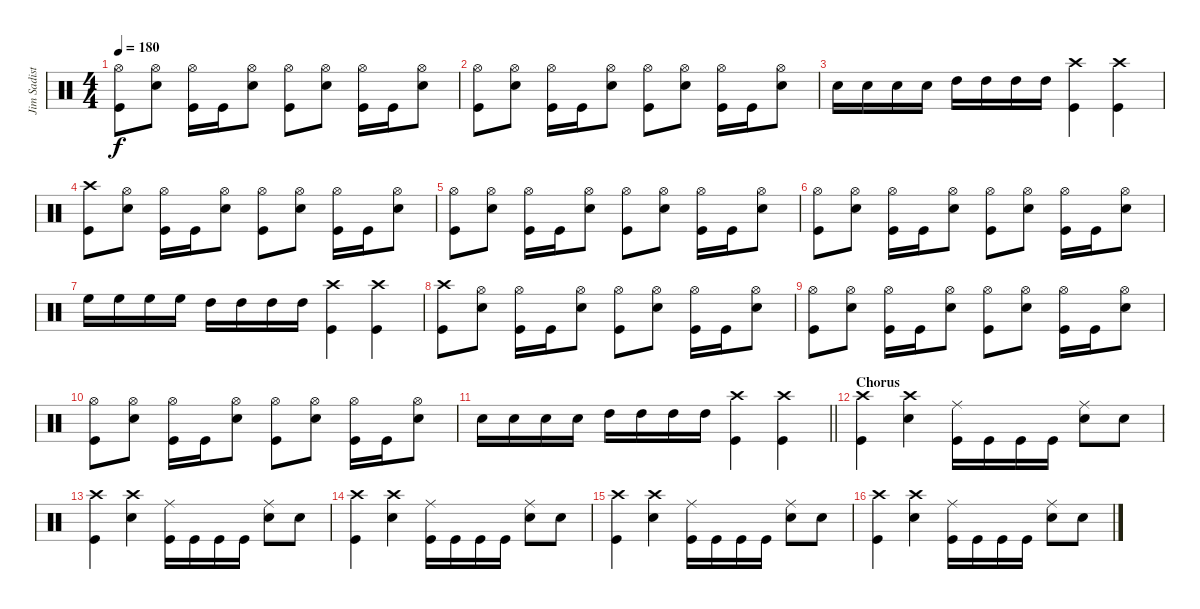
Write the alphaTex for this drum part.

\track ("Jim Sadist" "Jim Sadist") {instrument percussion}
\staff {score}
\articulation defaults
\ts (4 4)
\tempo 180
\clef neutral
\ks c
("Kick (hit)" "Hi-Hat (open)").8{dy f} ("Electric Snare (hit)" "Hi-Hat (open)").8 ("Kick (hit)" "Hi-Hat (open)").16 "Kick (hit)".16 ("Electric Snare (hit)" "Hi-Hat (open)").8 ("Kick (hit)" "Hi-Hat (open)").8 ("Electric Snare (hit)" "Hi-Hat (open)").8 ("Kick (hit)" "Hi-Hat (open)").16 "Kick (hit)".16 ("Electric Snare (hit)" "Hi-Hat (open)").8 |
("Kick (hit)" "Hi-Hat (open)").8 ("Electric Snare (hit)" "Hi-Hat (open)").8 ("Kick (hit)" "Hi-Hat (open)").16 "Kick (hit)".16 ("Electric Snare (hit)" "Hi-Hat (open)").8 ("Kick (hit)" "Hi-Hat (open)").8 ("Electric Snare (hit)" "Hi-Hat (open)").8 ("Kick (hit)" "Hi-Hat (open)").16 "Kick (hit)".16 ("Electric Snare (hit)" "Hi-Hat (open)").8 |
"Electric Snare (hit)".16 "Electric Snare (hit)".16 "Electric Snare (hit)".16 "Electric Snare (hit)".16 "High Tom (hit)".16 "High Tom (hit)".16 "High Tom (hit)".16 "High Tom (hit)".16 ("Crash high (hit)" "Kick (hit)").4 ("Crash high (hit)" "Kick (hit)").4 |
("Kick (hit)" "Crash high (hit)").8 ("Electric Snare (hit)" "Hi-Hat (open)").8 ("Kick (hit)" "Hi-Hat (open)").16 "Kick (hit)".16 ("Electric Snare (hit)" "Hi-Hat (open)").8 ("Kick (hit)" "Hi-Hat (open)").8 ("Electric Snare (hit)" "Hi-Hat (open)").8 ("Kick (hit)" "Hi-Hat (open)").16 "Kick (hit)".16 ("Electric Snare (hit)" "Hi-Hat (open)").8 |
("Kick (hit)" "Hi-Hat (open)").8 ("Electric Snare (hit)" "Hi-Hat (open)").8 ("Kick (hit)" "Hi-Hat (open)").16 "Kick (hit)".16 ("Electric Snare (hit)" "Hi-Hat (open)").8 ("Kick (hit)" "Hi-Hat (open)").8 ("Electric Snare (hit)" "Hi-Hat (open)").8 ("Kick (hit)" "Hi-Hat (open)").16 "Kick (hit)".16 ("Electric Snare (hit)" "Hi-Hat (open)").8 |
("Kick (hit)" "Hi-Hat (open)").8 ("Electric Snare (hit)" "Hi-Hat (open)").8 ("Kick (hit)" "Hi-Hat (open)").16 "Kick (hit)".16 ("Electric Snare (hit)" "Hi-Hat (open)").8 ("Kick (hit)" "Hi-Hat (open)").8 ("Electric Snare (hit)" "Hi-Hat (open)").8 ("Kick (hit)" "Hi-Hat (open)").16 "Kick (hit)".16 ("Electric Snare (hit)" "Hi-Hat (open)").8 |
"High Floor Tom (hit)".16 "High Floor Tom (hit)".16 "High Floor Tom (hit)".16 "High Floor Tom (hit)".16 "High Tom (hit)".16 "High Tom (hit)".16 "High Tom (hit)".16 "High Tom (hit)".16 ("Crash high (hit)" "Kick (hit)").4 ("Crash high (hit)" "Kick (hit)").4 |
("Kick (hit)" "Crash high (hit)").8 ("Electric Snare (hit)" "Hi-Hat (open)").8 ("Kick (hit)" "Hi-Hat (open)").16 "Kick (hit)".16 ("Electric Snare (hit)" "Hi-Hat (open)").8 ("Kick (hit)" "Hi-Hat (open)").8 ("Electric Snare (hit)" "Hi-Hat (open)").8 ("Kick (hit)" "Hi-Hat (open)").16 "Kick (hit)".16 ("Electric Snare (hit)" "Hi-Hat (open)").8 |
("Kick (hit)" "Hi-Hat (open)").8 ("Electric Snare (hit)" "Hi-Hat (open)").8 ("Kick (hit)" "Hi-Hat (open)").16 "Kick (hit)".16 ("Electric Snare (hit)" "Hi-Hat (open)").8 ("Kick (hit)" "Hi-Hat (open)").8 ("Electric Snare (hit)" "Hi-Hat (open)").8 ("Kick (hit)" "Hi-Hat (open)").16 "Kick (hit)".16 ("Electric Snare (hit)" "Hi-Hat (open)").8 |
("Kick (hit)" "Hi-Hat (open)").8 ("Electric Snare (hit)" "Hi-Hat (open)").8 ("Kick (hit)" "Hi-Hat (open)").16 "Kick (hit)".16 ("Electric Snare (hit)" "Hi-Hat (open)").8 ("Kick (hit)" "Hi-Hat (open)").8 ("Electric Snare (hit)" "Hi-Hat (open)").8 ("Kick (hit)" "Hi-Hat (open)").16 "Kick (hit)".16 ("Electric Snare (hit)" "Hi-Hat (open)").8 |
\barLineRight lightlight "Electric Snare (hit)".16 "Electric Snare (hit)".16 "Electric Snare (hit)".16 "Electric Snare (hit)".16 "High Tom (hit)".16 "High Tom (hit)".16 "High Tom (hit)".16 "High Tom (hit)".16
("Crash high (hit)" "Kick (hit)").4 ("Crash high (hit)" "Kick (hit)").4 |
\section ("" "Chorus")
("Crash high (hit)" "Kick (hit)").4 ("Crash high (hit)" "Electric Snare (hit)").4 ("Kick (hit)" "Ride (middle)").16 "Kick (hit)".16 "Kick (hit)".16 "Kick (hit)".16 ("Electric Snare (hit)" "Ride (middle)").8 "Electric Snare (hit)".8 |
("Crash high (hit)" "Kick (hit)").4 ("Crash high (hit)" "Electric Snare (hit)").4 ("Kick (hit)" "Ride (middle)").16 "Kick (hit)".16 "Kick (hit)".16 "Kick (hit)".16 ("Electric Snare (hit)" "Ride (middle)").8 "Electric Snare (hit)".8 |
("Crash high (hit)" "Kick (hit)").4 ("Crash high (hit)" "Electric Snare (hit)").4 ("Kick (hit)" "Ride (middle)").16 "Kick (hit)".16 "Kick (hit)".16 "Kick (hit)".16 ("Electric Snare (hit)" "Ride (middle)").8 "Electric Snare (hit)".8 |
("Crash high (hit)" "Kick (hit)").4 ("Crash high (hit)" "Electric Snare (hit)").4 ("Kick (hit)" "Ride (middle)").16 "Kick (hit)".16 "Kick (hit)".16 "Kick (hit)".16 ("Electric Snare (hit)" "Ride (middle)").8 "Electric Snare (hit)".8 |
("Crash high (hit)" "Kick (hit)").4 ("Crash high (hit)" "Electric Snare (hit)").4 ("Kick (hit)" "Ride (middle)").16 "Kick (hit)".16 "Kick (hit)".16 "Kick (hit)".16 ("Electric Snare (hit)" "Ride (middle)").8 "Electric Snare (hit)".8
